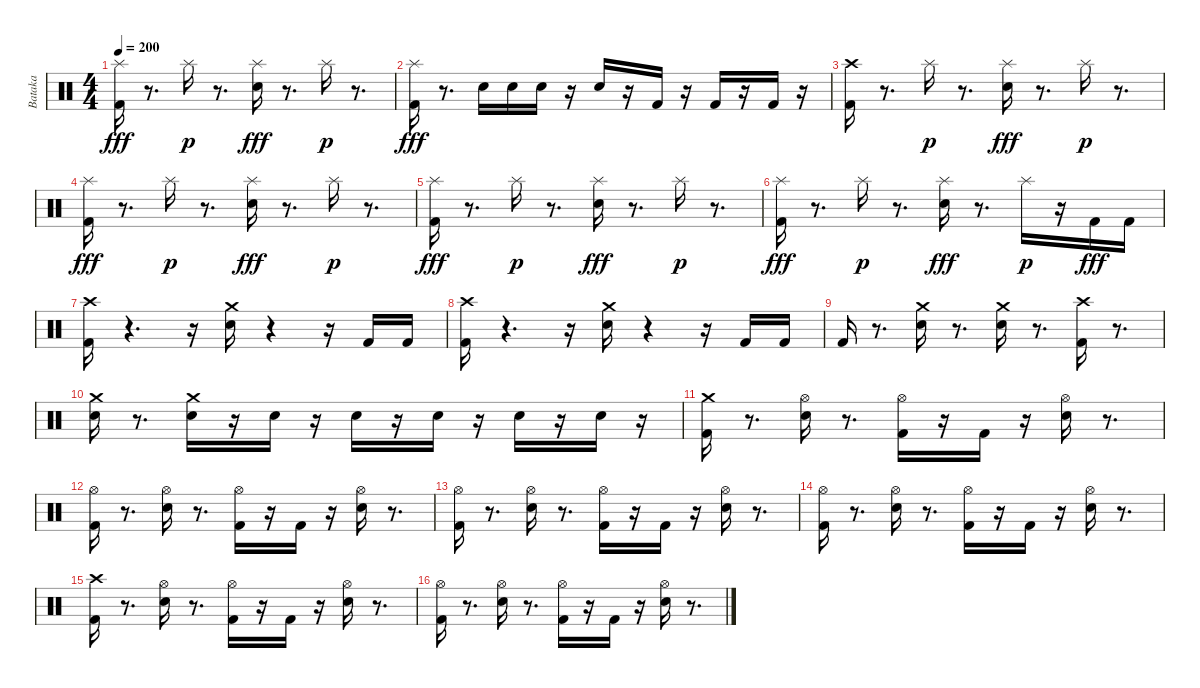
\track ("Bataka" "Bataka") {instrument percussion}
\staff {score}
\articulation defaults
\ts (4 4)
\tempo 200
\clef neutral
\ks c
("Splash (hit)" "Kick (hit) 2").16{dy fff} r.8{d} "Splash (hit)".16{dy p} r.8{d} ("Splash (hit)" "Electric Snare (hit)").16{dy fff} r.8{d} "Splash (hit)".16{dy p} r.8{d} |
("Splash (hit)" "Kick (hit) 2").16{dy fff} r.8{d} "Electric Snare (hit)".16 "Electric Snare (hit)".16 "Electric Snare (hit)".16 r.16 "Electric Snare (hit)".16 r.16 "Kick (hit) 2".16 r.16 "Kick (hit) 2".16 r.16 "Kick (hit) 2".16 r.16 |
("Kick (hit) 2" "Crash high (hit)").16 r.8{d} "Splash (hit)".16{dy p} r.8{d} ("Splash (hit)" "Electric Snare (hit)").16{dy fff} r.8{d} "Splash (hit)".16{dy p} r.8{d} |
("Splash (hit)" "Kick (hit) 2").16{dy fff} r.8{d} "Splash (hit)".16{dy p} r.8{d} ("Splash (hit)" "Electric Snare (hit)").16{dy fff} r.8{d} "Splash (hit)".16{dy p} r.8{d} |
("Splash (hit)" "Kick (hit) 2").16{dy fff} r.8{d} "Splash (hit)".16{dy p} r.8{d} ("Splash (hit)" "Electric Snare (hit)").16{dy fff} r.8{d} "Splash (hit)".16{dy p} r.8{d} |
("Splash (hit)" "Kick (hit) 2").16{dy fff} r.8{d} "Splash (hit)".16{dy p} r.8{d} ("Splash (hit)" "Electric Snare (hit)").16{dy fff} r.8{d} "Splash (hit)".16{dy p} r.16 "Kick (hit) 2".16{dy fff} "Kick (hit) 2".16 |
("Kick (hit) 2" "Crash high (hit)").16 r.4{d} r.16 ("Electric Snare (hit)" "Crash medium (hit)").16 r.4 r.16 "Kick (hit) 2".16 "Kick (hit) 2".16 |
("Crash high (hit)" "Kick (hit) 2").16 r.4{d} r.16 ("Crash medium (hit)" "Electric Snare (hit)").16 r.4 r.16 "Kick (hit) 2".16 "Kick (hit) 2".16 |
"Kick (hit) 2".16 r.8{d} ("Electric Snare (hit)" "Crash medium (hit)").16 r.8{d} ("Electric Snare (hit)" "Crash medium (hit)").16 r.8{d} ("Kick (hit) 2" "Crash high (hit)").16 r.8{d} |
("Electric Snare (hit)" "Crash medium (hit)").16 r.8{d} ("Electric Snare (hit)" "Crash medium (hit)").16 r.16 "Electric Snare (hit)".16 r.16 "Electric Snare (hit)".16 r.16 "Electric Snare (hit)".16 r.16 "Electric Snare (hit)".16 r.16 "Electric Snare (hit)".16 r.16 |
("Kick (hit) 2" "Crash medium (hit)").16 r.8{d} ("Electric Snare (hit)" "Hi-Hat (open)").16 r.8{d} ("Kick (hit) 2" "Hi-Hat (open)").16 r.16 "Kick (hit) 2".16 r.16 ("Electric Snare (hit)" "Hi-Hat (open)").16 r.8{d} |
("Kick (hit) 2" "Hi-Hat (open)").16 r.8{d} ("Electric Snare (hit)" "Hi-Hat (open)").16 r.8{d} ("Kick (hit) 2" "Hi-Hat (open)").16 r.16 "Kick (hit) 2".16 r.16 ("Electric Snare (hit)" "Hi-Hat (open)").16 r.8{d} |
("Kick (hit) 2" "Hi-Hat (open)").16 r.8{d} ("Electric Snare (hit)" "Hi-Hat (open)").16 r.8{d} ("Kick (hit) 2" "Hi-Hat (open)").16 r.16 "Kick (hit) 2".16 r.16 ("Electric Snare (hit)" "Hi-Hat (open)").16 r.8{d} |
("Kick (hit) 2" "Hi-Hat (open)").16 r.8{d} ("Electric Snare (hit)" "Hi-Hat (open)").16 r.8{d} ("Kick (hit) 2" "Hi-Hat (open)").16 r.16 "Kick (hit) 2".16 r.16 ("Electric Snare (hit)" "Hi-Hat (open)").16 r.8{d} |
("Kick (hit) 2" "Crash high (hit)").16 r.8{d} ("Electric Snare (hit)" "Hi-Hat (open)").16 r.8{d} ("Kick (hit) 2" "Hi-Hat (open)").16 r.16 "Kick (hit) 2".16 r.16 ("Electric Snare (hit)" "Hi-Hat (open)").16 r.8{d} |
("Kick (hit) 2" "Hi-Hat (open)").16 r.8{d} ("Electric Snare (hit)" "Hi-Hat (open)").16 r.8{d} ("Kick (hit) 2" "Hi-Hat (open)").16 r.16 "Kick (hit) 2".16 r.16 ("Electric Snare (hit)" "Hi-Hat (open)").16 r.8{d}
